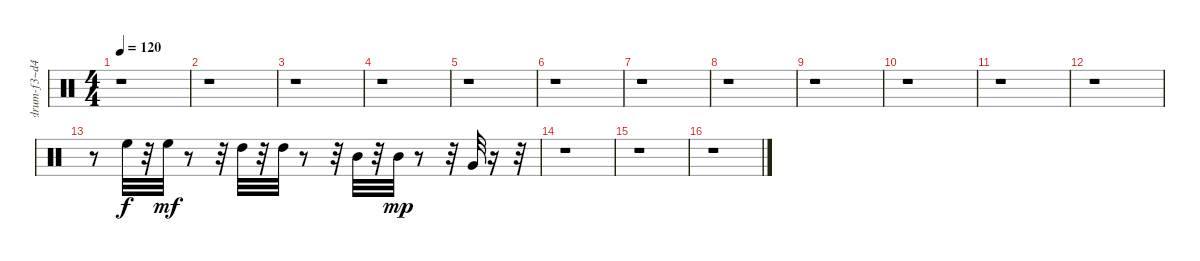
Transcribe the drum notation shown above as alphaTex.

\track ("drum-f3~d4" "drum-f3~d4") {instrument percussion}
\staff {score}
\articulation defaults
\ts (4 4)
\tempo 120
\clef neutral
\ks c
r.1{dy mp} |
r.1 |
r.1 |
r.1 |
r.1 |
r.1 |
r.1 |
r.1 |
r.1 |
r.1 |
r.1 |
r.1 |
r.8 "High Floor Tom (hit)".32{dy f} r.32 "High Floor Tom (hit)".32{dy mf} r.8 r.32 "High Tom (hit)".32 r.32 "High Tom (hit)".32 r.8 r.32 "Mid Tom (hit)".32 r.32 "Mid Tom (hit)".32{dy mp} r.8 r.32 "Very Low Tom (hit)".32 r.16 r.32 |
r.1 |
r.1 |
r.1
